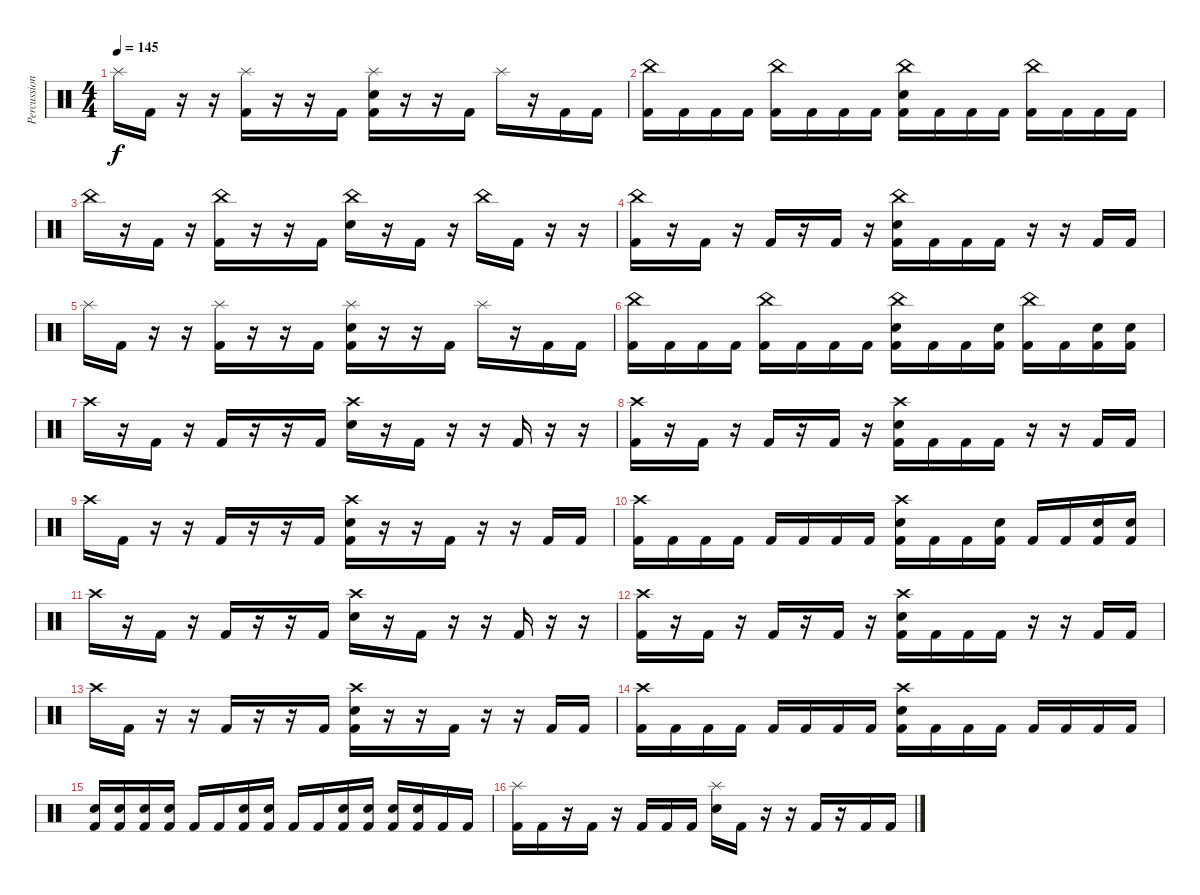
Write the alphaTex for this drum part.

\track ("Percussion" "Percussion") {instrument percussion}
\staff {score}
\articulation defaults
\ts (4 4)
\tempo 145
\clef neutral
\ks c "Splash (hit)".16{dy f} "Kick (hit) 2".16
r.16 r.16 ("Splash (hit)" "Kick (hit) 2").16 r.16 r.16 "Kick (hit) 2".16 ("Splash (hit)" "Snare (hit) 2" "Kick (hit) 2").16 r.16 r.16 "Kick (hit) 2".16 "Splash (hit)".16 r.16 "Kick (hit) 2".16 "Kick (hit) 2".16 |
("China (hit)" "Kick (hit) 2").16 "Kick (hit) 2".16 "Kick (hit) 2".16 "Kick (hit) 2".16 ("China (hit)" "Kick (hit) 2").16 "Kick (hit) 2".16 "Kick (hit) 2".16 "Kick (hit) 2".16 ("China (hit)" "Snare (hit) 2" "Kick (hit) 2").16 "Kick (hit) 2".16 "Kick (hit) 2".16 "Kick (hit) 2".16 ("China (hit)" "Kick (hit) 2").16 "Kick (hit) 2".16 "Kick (hit) 2".16 "Kick (hit) 2".16 |
"China (hit)".16 r.16 "Kick (hit) 2".16 r.16 ("China (hit)" "Kick (hit) 2").16 r.16 r.16 "Kick (hit) 2".16 ("China (hit)" "Snare (hit) 2").16 r.16 "Kick (hit) 2".16 r.16 "China (hit)".16 "Kick (hit) 2".16 r.16 r.16 |
("China (hit)" "Kick (hit) 2").16 r.16 "Kick (hit) 2".16 r.16 "Kick (hit) 2".16 r.16 "Kick (hit) 2".16 r.16 ("China (hit)" "Snare (hit) 2" "Kick (hit) 2").16 "Kick (hit) 2".16 "Kick (hit) 2".16 "Kick (hit) 2".16 r.16 r.16 "Kick (hit) 2".16 "Kick (hit) 2".16 |
"Splash (hit)".16 "Kick (hit) 2".16 r.16 r.16 ("Splash (hit)" "Kick (hit) 2").16 r.16 r.16 "Kick (hit) 2".16 ("Splash (hit)" "Snare (hit) 2" "Kick (hit) 2").16 r.16 r.16 "Kick (hit) 2".16 "Splash (hit)".16 r.16 "Kick (hit) 2".16 "Kick (hit) 2".16 |
("China (hit)" "Kick (hit) 2").16 "Kick (hit) 2".16 "Kick (hit) 2".16 "Kick (hit) 2".16 ("China (hit)" "Kick (hit) 2").16 "Kick (hit) 2".16 "Kick (hit) 2".16 "Kick (hit) 2".16 ("China (hit)" "Snare (hit) 2" "Kick (hit) 2").16 "Kick (hit) 2".16 "Kick (hit) 2".16 ("Snare (hit) 2" "Kick (hit) 2").16 ("China (hit)" "Kick (hit) 2").16 "Kick (hit) 2".16 ("Snare (hit) 2" "Kick (hit) 2").16 ("Snare (hit) 2" "Kick (hit) 2").16 |
"Crash high (hit)".16 r.16 "Kick (hit) 2".16 r.16 "Kick (hit) 2".16 r.16 r.16 "Kick (hit) 2".16 ("Crash high (hit)" "Snare (hit) 2").16 r.16 "Kick (hit) 2".16 r.16 r.16 "Kick (hit) 2".16 r.16 r.16 |
("Crash high (hit)" "Kick (hit) 2").16 r.16 "Kick (hit) 2".16 r.16 "Kick (hit) 2".16 r.16 "Kick (hit) 2".16 r.16 ("Crash high (hit)" "Snare (hit) 2" "Kick (hit) 2").16 "Kick (hit) 2".16 "Kick (hit) 2".16 "Kick (hit) 2".16 r.16 r.16 "Kick (hit) 2".16 "Kick (hit) 2".16 |
"Crash high (hit)".16 "Kick (hit) 2".16 r.16 r.16 "Kick (hit) 2".16 r.16 r.16 "Kick (hit) 2".16 ("Crash high (hit)" "Snare (hit) 2" "Kick (hit) 2").16 r.16 r.16 "Kick (hit) 2".16 r.16 r.16 "Kick (hit) 2".16 "Kick (hit) 2".16 |
("Crash high (hit)" "Kick (hit) 2").16 "Kick (hit) 2".16 "Kick (hit) 2".16 "Kick (hit) 2".16 "Kick (hit) 2".16 "Kick (hit) 2".16 "Kick (hit) 2".16 "Kick (hit) 2".16 ("Crash high (hit)" "Snare (hit) 2" "Kick (hit) 2").16 "Kick (hit) 2".16 "Kick (hit) 2".16 ("Snare (hit) 2" "Kick (hit) 2").16 "Kick (hit) 2".16 "Kick (hit) 2".16 ("Snare (hit) 2" "Kick (hit) 2").16 ("Snare (hit) 2" "Kick (hit) 2").16 |
"Crash high (hit)".16 r.16 "Kick (hit) 2".16 r.16 "Kick (hit) 2".16 r.16 r.16 "Kick (hit) 2".16 ("Crash high (hit)" "Snare (hit) 2").16 r.16 "Kick (hit) 2".16 r.16 r.16 "Kick (hit) 2".16 r.16 r.16 |
("Crash high (hit)" "Kick (hit) 2").16 r.16 "Kick (hit) 2".16 r.16 "Kick (hit) 2".16 r.16 "Kick (hit) 2".16 r.16 ("Crash high (hit)" "Snare (hit) 2" "Kick (hit) 2").16 "Kick (hit) 2".16 "Kick (hit) 2".16 "Kick (hit) 2".16 r.16 r.16 "Kick (hit) 2".16 "Kick (hit) 2".16 |
"Crash high (hit)".16 "Kick (hit) 2".16 r.16 r.16 "Kick (hit) 2".16 r.16 r.16 "Kick (hit) 2".16 ("Crash high (hit)" "Snare (hit) 2" "Kick (hit) 2").16 r.16 r.16 "Kick (hit) 2".16 r.16 r.16 "Kick (hit) 2".16 "Kick (hit) 2".16 |
("Crash high (hit)" "Kick (hit) 2").16 "Kick (hit) 2".16 "Kick (hit) 2".16 "Kick (hit) 2".16 "Kick (hit) 2".16 "Kick (hit) 2".16 "Kick (hit) 2".16 "Kick (hit) 2".16 ("Crash high (hit)" "Snare (hit) 2" "Kick (hit) 2").16 "Kick (hit) 2".16 "Kick (hit) 2".16 "Kick (hit) 2".16 "Kick (hit) 2".16 "Kick (hit) 2".16 "Kick (hit) 2".16 "Kick (hit) 2".16 |
("Snare (hit) 2" "Kick (hit) 2").16 ("Snare (hit) 2" "Kick (hit) 2").16 ("Snare (hit) 2" "Kick (hit) 2").16 ("Snare (hit) 2" "Kick (hit) 2").16 "Kick (hit) 2".16 "Kick (hit) 2".16 ("Snare (hit) 2" "Kick (hit) 2").16 ("Snare (hit) 2" "Kick (hit) 2").16 "Kick (hit) 2".16 "Kick (hit) 2".16 ("Snare (hit) 2" "Kick (hit) 2").16 ("Snare (hit) 2" "Kick (hit) 2").16 ("Snare (hit) 2" "Kick (hit) 2").16 ("Snare (hit) 2" "Kick (hit) 2").16 "Kick (hit) 2".16 "Kick (hit) 2".16 |
("Splash (hit)" "Kick (hit) 2").16 "Kick (hit) 2".16 r.16 "Kick (hit) 2".16 r.16 "Kick (hit) 2".16 "Kick (hit) 2".16 "Kick (hit) 2".16 ("Splash (hit)" "Snare (hit) 2").16 "Kick (hit) 2".16 r.16 r.16 "Kick (hit) 2".16 r.16 "Kick (hit) 2".16 "Kick (hit) 2".16
